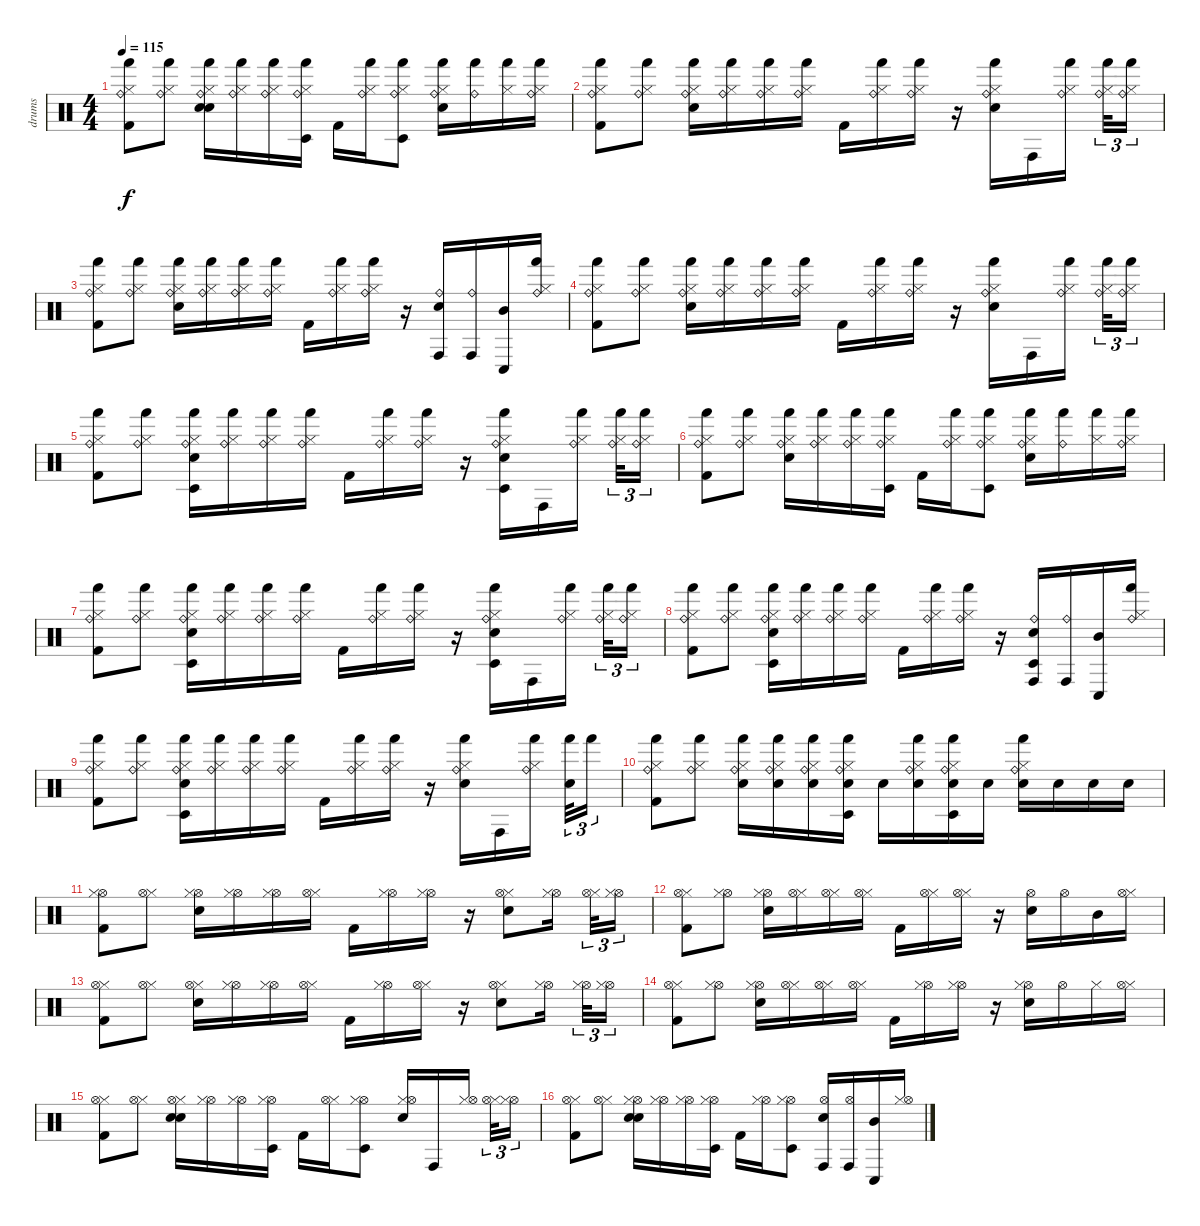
\track ("drums" "drums") {instrument percussion}
\staff {score}
\articulation defaults
\ts (4 4)
\tempo 115
\clef neutral
\ks c
("Hand (hit)" "Kick (hit) 2" "Hi-Hat (closed)" "Ride (bell)").8{dy f} ("Hi-Hat (closed)" "Ride (bell)" "Hand (hit)").8 ("Electric Snare (hit)" "Hand (hit)" "Ride (bell)" "Hand Clap (hit)" "Hi-Hat (closed)").16 ("Ride (bell)" "Hi-Hat (closed)" "Hand (hit)").16 ("Hi-Hat (closed)" "Hand (hit)" "Ride (bell)").16 ("Hand (hit)" "Ride (bell)" "Hi-Hat (closed)" "Timbale low (hit)").16 "Kick (hit) 2".16 ("Hand (hit)" "Hi-Hat (closed)" "Ride (bell)").16 ("Ride (bell)" "Hi-Hat (closed)" "Hand (hit)" "Timbale low (hit)").8 ("Ride (bell)" "Hi-Hat (closed)" "Hand Clap (hit)" "Hand (hit)").16 ("Ride (bell)" "Hand (hit)").16 ("Hi-Hat (closed)" "Hand (hit)").16 ("Hi-Hat (closed)" "Ride (bell)" "Hand (hit)").16 |
("Kick (hit) 2" "Hand (hit)" "Hi-Hat (closed)" "Ride (bell)").8 ("Hand (hit)" "Ride (bell)" "Hi-Hat (closed)").8 ("Hand (hit)" "Hand Clap (hit)" "Ride (bell)" "Hi-Hat (closed)").16 ("Ride (bell)" "Hand (hit)" "Hi-Hat (closed)").16 ("Hi-Hat (closed)" "Hand (hit)" "Ride (bell)").16 ("Hi-Hat (closed)" "Ride (bell)" "Hand (hit)").16 "Kick (hit) 2".16 ("Ride (bell)" "Hi-Hat (closed)" "Hand (hit)").16 ("Ride (bell)" "Hi-Hat (closed)" "Hand (hit)").16 r.16 ("Hand (hit)" "Ride (bell)" "Hand Clap (hit)" "Hi-Hat (closed)").16 "Conga high (hit)".16 ("Hand (hit)" "Ride (bell)" "Hi-Hat (closed)").16 ("Ride (bell)" "Hand (hit)" "Hi-Hat (closed)").32{tu (3 2)} ("Hi-Hat (closed)" "Ride (bell)" "Hand (hit)").16{tu (3 2)} |
("Hi-Hat (closed)" "Hand (hit)" "Ride (bell)" "Kick (hit) 2").8 ("Ride (bell)" "Hand (hit)" "Hi-Hat (closed)").8 ("Ride (bell)" "Hand (hit)" "Hi-Hat (closed)" "Hand Clap (hit)").16 ("Hand (hit)" "Ride (bell)" "Hi-Hat (closed)").16 ("Ride (bell)" "Hand (hit)" "Hi-Hat (closed)").16 ("Hand (hit)" "Hi-Hat (closed)" "Ride (bell)").16 "Kick (hit) 2".16 ("Hi-Hat (closed)" "Hand (hit)" "Ride (bell)").16 ("Hand (hit)" "Ride (bell)" "Hi-Hat (closed)").16 r.16 ("Hand Clap (hit)" "Conga high (hit)" "Ride (bell)").16 ("Conga high (hit)" "Ride (bell)").16 ("Conga low (hit)" "Mid Tom (hit)").16 ("Ride (bell)" "Hi-Hat (closed)" "Hand (hit)").16 |
("Kick (hit) 2" "Ride (bell)" "Hi-Hat (closed)" "Hand (hit)").8 ("Hand (hit)" "Ride (bell)" "Hi-Hat (closed)").8 ("Ride (bell)" "Hand Clap (hit)" "Hand (hit)" "Hi-Hat (closed)").16 ("Ride (bell)" "Hi-Hat (closed)" "Hand (hit)").16 ("Ride (bell)" "Hi-Hat (closed)" "Hand (hit)").16 ("Ride (bell)" "Hi-Hat (closed)" "Hand (hit)").16 "Kick (hit) 2".16 ("Hand (hit)" "Ride (bell)" "Hi-Hat (closed)").16 ("Hand (hit)" "Hi-Hat (closed)" "Ride (bell)").16 r.16 ("Hi-Hat (closed)" "Hand Clap (hit)" "Ride (bell)" "Hand (hit)").16 "Conga high (hit)".16 ("Hi-Hat (closed)" "Ride (bell)" "Hand (hit)").16 ("Hand (hit)" "Ride (bell)" "Hi-Hat (closed)").32{tu (3 2)} ("Hand (hit)" "Ride (bell)" "Hi-Hat (closed)").16{tu (3 2)} |
("Ride (bell)" "Hand (hit)" "Hi-Hat (closed)" "Kick (hit) 2").8 ("Ride (bell)" "Hand (hit)" "Hi-Hat (closed)").8 ("Hi-Hat (closed)" "Hand Clap (hit)" "Ride (bell)" "Hand (hit)" "Timbale low (hit)").16 ("Hi-Hat (closed)" "Ride (bell)" "Hand (hit)").16 ("Ride (bell)" "Hi-Hat (closed)" "Hand (hit)").16 ("Hi-Hat (closed)" "Ride (bell)" "Hand (hit)").16 "Kick (hit) 2".16 ("Hand (hit)" "Ride (bell)" "Hi-Hat (closed)").16 ("Hand (hit)" "Hi-Hat (closed)" "Ride (bell)").16 r.16 ("Ride (bell)" "Hand Clap (hit)" "Hi-Hat (closed)" "Timbale low (hit)" "Hand (hit)").16 "Conga high (hit)".16 ("Hand (hit)" "Hi-Hat (closed)" "Ride (bell)").16 ("Ride (bell)" "Hi-Hat (closed)" "Hand (hit)").32{tu (3 2)} ("Ride (bell)" "Hi-Hat (closed)" "Hand (hit)").16{tu (3 2)} |
("Ride (bell)" "Kick (hit) 2" "Hi-Hat (closed)" "Hand (hit)").8 ("Hand (hit)" "Hi-Hat (closed)" "Ride (bell)").8 ("Hand (hit)" "Hi-Hat (closed)" "Ride (bell)" "Hand Clap (hit)").16 ("Hand (hit)" "Ride (bell)" "Hi-Hat (closed)").16 ("Ride (bell)" "Hand (hit)" "Hi-Hat (closed)").16 ("Hi-Hat (closed)" "Hand (hit)" "Ride (bell)" "Timbale low (hit)").16 "Kick (hit) 2".16 ("Ride (bell)" "Hand (hit)" "Hi-Hat (closed)").16 ("Hi-Hat (closed)" "Ride (bell)" "Hand (hit)" "Timbale low (hit)").8 ("Hi-Hat (closed)" "Ride (bell)" "Hand (hit)" "Hand Clap (hit)").16 ("Hand (hit)" "Ride (bell)").16 ("Hand (hit)" "Hi-Hat (closed)").16 ("Ride (bell)" "Hi-Hat (closed)" "Hand (hit)").16 |
("Kick (hit) 2" "Hand (hit)" "Ride (bell)" "Hi-Hat (closed)").8 ("Ride (bell)" "Hi-Hat (closed)" "Hand (hit)").8 ("Ride (bell)" "Hi-Hat (closed)" "Timbale low (hit)" "Hand Clap (hit)" "Hand (hit)").16 ("Hand (hit)" "Ride (bell)" "Hi-Hat (closed)").16 ("Ride (bell)" "Hand (hit)" "Hi-Hat (closed)").16 ("Hi-Hat (closed)" "Ride (bell)" "Hand (hit)").16 "Kick (hit) 2".16 ("Hand (hit)" "Hi-Hat (closed)" "Ride (bell)").16 ("Hand (hit)" "Ride (bell)" "Hi-Hat (closed)").16 r.16 ("Hand Clap (hit)" "Hi-Hat (closed)" "Ride (bell)" "Hand (hit)" "Timbale low (hit)").16 "Conga high (hit)".16 ("Ride (bell)" "Hand (hit)" "Hi-Hat (closed)").16 ("Hand (hit)" "Ride (bell)" "Hi-Hat (closed)").32{tu (3 2)} ("Hand (hit)" "Ride (bell)" "Hi-Hat (closed)").16{tu (3 2)} |
("Hand (hit)" "Ride (bell)" "Hi-Hat (closed)" "Kick (hit) 2").8 ("Hand (hit)" "Hi-Hat (closed)" "Ride (bell)").8 ("Timbale low (hit)" "Hand Clap (hit)" "Ride (bell)" "Hi-Hat (closed)" "Hand (hit)").16 ("Hi-Hat (closed)" "Ride (bell)" "Hand (hit)").16 ("Hand (hit)" "Ride (bell)" "Hi-Hat (closed)").16 ("Hand (hit)" "Hi-Hat (closed)" "Ride (bell)").16 "Kick (hit) 2".16 ("Ride (bell)" "Hand (hit)" "Hi-Hat (closed)").16 ("Hi-Hat (closed)" "Ride (bell)" "Hand (hit)").16 r.16 ("Ride (bell)" "Hand Clap (hit)" "Timbale low (hit)" "Conga high (hit)").16 ("Ride (bell)" "Conga high (hit)").16 ("Mid Tom (hit)" "Conga low (hit)").16 ("Hand (hit)" "Ride (bell)" "Hi-Hat (closed)").16 |
("Kick (hit) 2" "Hand (hit)" "Hi-Hat (closed)" "Ride (bell)").8 ("Ride (bell)" "Hi-Hat (closed)" "Hand (hit)").8 ("Ride (bell)" "Hand (hit)" "Hand Clap (hit)" "Hi-Hat (closed)" "Timbale low (hit)").16 ("Hand (hit)" "Ride (bell)" "Hi-Hat (closed)").16 ("Hand (hit)" "Ride (bell)" "Hi-Hat (closed)").16 ("Hi-Hat (closed)" "Hand (hit)" "Ride (bell)").16 "Kick (hit) 2".16 ("Ride (bell)" "Hi-Hat (closed)" "Hand (hit)").16 ("Ride (bell)" "Hand (hit)" "Hi-Hat (closed)").16 r.16 ("Hand (hit)" "Hand Clap (hit)" "Ride (bell)" "Hi-Hat (closed)").16 "Conga high (hit)".16 ("Ride (bell)" "Hand (hit)" "Hi-Hat (closed)").16 ("Electric Snare (hit)" "Hand (hit)").32{tu (3 2)} "Hand (hit)".16{tu (3 2)} |
("Ride (bell)" "Hi-Hat (closed)" "Hand (hit)" "Kick (hit) 2").8 ("Ride (bell)" "Hi-Hat (closed)" "Hand (hit)").8 ("Ride (bell)" "Hand (hit)" "Hi-Hat (closed)" "Electric Snare (hit)").16 ("Hi-Hat (closed)" "Ride (bell)" "Electric Snare (hit)" "Hand (hit)").16 ("Ride (bell)" "Hi-Hat (closed)" "Electric Snare (hit)" "Hand (hit)").16 ("Hand (hit)" "Ride (bell)" "Timbale low (hit)" "Hi-Hat (closed)" "Electric Snare (hit)").16 "Electric Snare (hit)".16 ("Ride (bell)" "Electric Snare (hit)" "Hi-Hat (closed)" "Hand (hit)").16 ("Hi-Hat (closed)" "Electric Snare (hit)" "Timbale low (hit)" "Ride (bell)" "Hand (hit)").16 "Electric Snare (hit)".16 ("Ride (bell)" "Hand (hit)" "Hi-Hat (closed)" "Hand Clap (hit)").16 "Electric Snare (hit)".16 "Electric Snare (hit)".16 "Electric Snare (hit)".16 |
("Hi-Hat (open)" "Kick (hit) 2" "Hi-Hat (closed)").8 ("Hi-Hat (closed)" "Hi-Hat (open)").8 ("Hand Clap (hit)" "Hi-Hat (open)" "Hi-Hat (closed)").16 ("Hi-Hat (open)" "Hi-Hat (closed)").16 ("Hi-Hat (open)" "Hi-Hat (closed)").16 ("Hi-Hat (closed)" "Hi-Hat (open)").16 "Kick (hit) 2".16 ("Hi-Hat (open)" "Hi-Hat (closed)").16 ("Hi-Hat (open)" "Hi-Hat (closed)").16 r.16 ("Hi-Hat (closed)" "Hi-Hat (open)" "Hand Clap (hit)").8 ("Hi-Hat (open)" "Hi-Hat (closed)").16 ("Hi-Hat (closed)" "Hi-Hat (open)").32{tu (3 2)} ("Hi-Hat (open)" "Hi-Hat (closed)").16{tu (3 2)} |
("Hi-Hat (closed)" "Hi-Hat (open)" "Kick (hit) 2").8 ("Hi-Hat (open)" "Hi-Hat (closed)").8 ("Hand Clap (hit)" "Hi-Hat (open)" "Hi-Hat (closed)").16 ("Hi-Hat (closed)" "Hi-Hat (open)").16 ("Hi-Hat (closed)" "Hi-Hat (open)").16 ("Hi-Hat (closed)" "Hi-Hat (open)").16 "Kick (hit) 2".16 ("Hi-Hat (closed)" "Hi-Hat (open)").16 ("Hi-Hat (closed)" "Hi-Hat (open)").16 r.16 ("Hi-Hat (open)" "Hand Clap (hit)").16 "Hi-Hat (open)".16 "Mid Tom (hit)".16 ("Hi-Hat (closed)" "Hi-Hat (open)").16 |
("Hi-Hat (closed)" "Hi-Hat (open)" "Kick (hit) 2").8 ("Hi-Hat (closed)" "Hi-Hat (open)").8 ("Hi-Hat (closed)" "Hi-Hat (open)" "Hand Clap (hit)").16 ("Hi-Hat (open)" "Hi-Hat (closed)").16 ("Hi-Hat (open)" "Hi-Hat (closed)").16 ("Hi-Hat (closed)" "Hi-Hat (open)").16 "Kick (hit) 2".16 ("Hi-Hat (open)" "Hi-Hat (closed)").16 ("Hi-Hat (closed)" "Hi-Hat (open)").16 r.16 ("Hi-Hat (closed)" "Hi-Hat (open)" "Hand Clap (hit)").8 ("Hi-Hat (open)" "Hi-Hat (closed)").16 ("Hi-Hat (open)" "Hi-Hat (closed)").32{tu (3 2)} ("Hi-Hat (open)" "Hi-Hat (closed)").16{tu (3 2)} |
("Kick (hit) 2" "Hi-Hat (closed)" "Hi-Hat (open)").8 ("Hi-Hat (open)" "Hi-Hat (closed)").8 ("Hi-Hat (open)" "Hand Clap (hit)" "Hi-Hat (closed)").16 ("Hi-Hat (closed)" "Hi-Hat (open)").16 ("Hi-Hat (closed)" "Hi-Hat (open)").16 ("Hi-Hat (closed)" "Hi-Hat (open)").16 "Kick (hit) 2".16 ("Hi-Hat (open)" "Hi-Hat (closed)").16 ("Hi-Hat (open)" "Hi-Hat (closed)").16 r.16 ("Hand Clap (hit)" "Hi-Hat (open)" "Hi-Hat (closed)").16 "Hi-Hat (open)".16 "Hi-Hat (closed)".16 ("Hi-Hat (closed)" "Hi-Hat (open)").16 |
("Hi-Hat (closed)" "Kick (hit) 2" "Hi-Hat (open)").8 ("Hi-Hat (closed)" "Hi-Hat (open)").8 ("Electric Snare (hit)" "Hi-Hat (closed)" "Hand Clap (hit)" "Hi-Hat (open)").16 ("Hi-Hat (open)" "Hi-Hat (closed)").16 ("Hi-Hat (open)" "Hi-Hat (closed)").16 ("Hi-Hat (open)" "Hi-Hat (closed)" "Timbale low (hit)").16 "Kick (hit) 2".16 ("Hi-Hat (closed)" "Hi-Hat (open)").16 ("Hi-Hat (open)" "Hi-Hat (closed)" "Timbale low (hit)").8 ("Hi-Hat (closed)" "Hand Clap (hit)" "Hi-Hat (open)").16 "Conga high (hit)".16 ("Hi-Hat (closed)" "Hi-Hat (open)").16 ("Hi-Hat (closed)" "Hi-Hat (open)").32{tu (3 2)} ("Hi-Hat (open)" "Hi-Hat (closed)").16{tu (3 2)} |
("Hi-Hat (closed)" "Hi-Hat (open)" "Kick (hit) 2").8 ("Hi-Hat (closed)" "Hi-Hat (open)").8 ("Hand Clap (hit)" "Snare (hit) 2" "Hi-Hat (open)" "Hi-Hat (closed)").16 ("Hi-Hat (open)" "Hi-Hat (closed)").16 ("Hi-Hat (open)" "Hi-Hat (closed)").16 ("Hi-Hat (open)" "Timbale low (hit)" "Hi-Hat (closed)").16 "Kick (hit) 2".16 ("Hi-Hat (open)" "Hi-Hat (closed)").16 ("Timbale low (hit)" "Hi-Hat (open)" "Hi-Hat (closed)").8 ("Hi-Hat (open)" "Hand Clap (hit)" "Conga high (hit)").16 ("Conga high (hit)" "Hi-Hat (open)").16 ("Mid Tom (hit)" "Conga low (hit)").16 ("Hi-Hat (closed)" "Hi-Hat (open)").16
